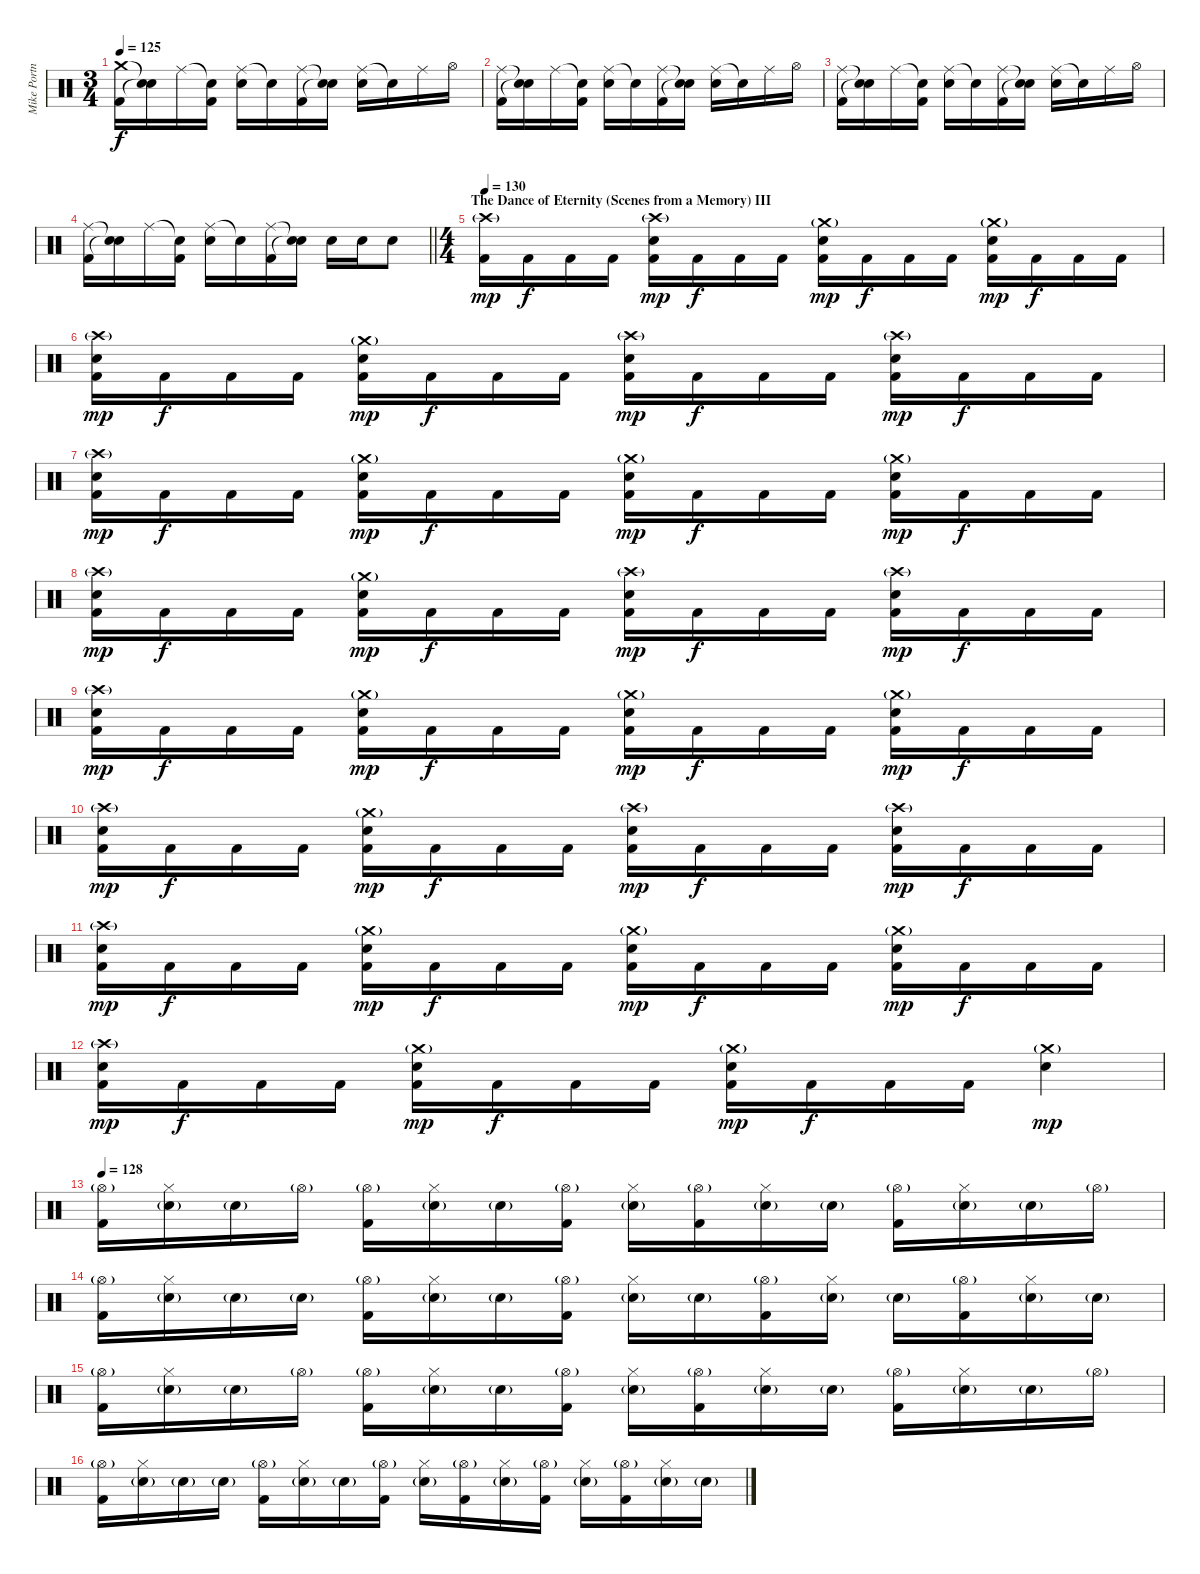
\track ("Mike Portnoy Drums" "Mike Portn") {instrument percussion}
\staff {score}
\articulation defaults
\ts (3 4)
\tempo 125
\clef neutral
\ks c
("Crash medium (hit)" "Kick (hit) 2").16{dy f} ("Snare (hit)"{t} "Snare (hit)"{t}).16 "Ride (middle)".16 ("Snare (hit)"{t} "Kick (hit) 2").16 ("Ride (middle)" "Snare (hit) 2").16 "Snare (hit)"{t}.16 ("Ride (middle)" "Kick (hit) 2").16 ("Snare (hit)"{t} "Snare (hit)"{t}).16 ("Ride (middle)" "Snare (hit) 2").16 "Snare (hit)"{t}.16 "Ride (middle)".16 "Hi-Hat (open)".16 |
("Ride (middle)" "Kick (hit) 2").16 ("Snare (hit)"{t} "Snare (hit)"{t}).16 "Ride (middle)".16 ("Snare (hit)"{t} "Kick (hit) 2").16 ("Ride (middle)" "Snare (hit) 2").16 "Snare (hit)"{t}.16 ("Ride (middle)" "Kick (hit) 2").16 ("Snare (hit)"{t} "Snare (hit)"{t}).16 ("Ride (middle)" "Snare (hit) 2").16 "Snare (hit)"{t}.16 "Ride (middle)".16 "Hi-Hat (open)".16 |
("Ride (middle)" "Kick (hit) 2").16 ("Snare (hit)"{t} "Snare (hit)"{t}).16 "Ride (middle)".16 ("Snare (hit)"{t} "Kick (hit) 2").16 ("Ride (middle)" "Snare (hit) 2").16 "Snare (hit)"{t}.16 ("Ride (middle)" "Kick (hit) 2").16 ("Snare (hit)"{t} "Snare (hit)"{t}).16 ("Ride (middle)" "Snare (hit) 2").16 "Snare (hit)"{t}.16 "Ride (middle)".16 "Hi-Hat (open)".16 |
\barLineRight lightlight
("Ride (middle)" "Kick (hit) 2").16 ("Snare (hit)"{t} "Snare (hit)"{t}).16 "Ride (middle)".16 ("Snare (hit)"{t} "Kick (hit) 2").16 ("Ride (middle)" "Snare (hit) 2").16 "Snare (hit)"{t}.16 ("Ride (middle)" "Kick (hit) 2").16 ("Snare (hit)"{t} "Snare (hit)"{t}).16 "Snare (hit) 2".16 "Snare (hit) 2".16 "Snare (hit) 2".8 |
\ts (4 4)
\section ("" "The Dance of Eternity (Scenes from a Memory) III")
\tempo 130
("Crash high (hit)"{g} "Kick (hit) 2").16{dy mp} "Kick (hit) 2".16{dy f} "Kick (hit) 2".16 "Kick (hit) 2".16 ("Crash high (hit)"{g} "Snare (hit) 2" "Kick (hit) 2").16{dy mp} "Kick (hit) 2".16{dy f} "Kick (hit) 2".16 "Kick (hit) 2".16 ("Crash medium (hit)"{g} "Snare (hit) 2" "Kick (hit) 2").16{dy mp} "Kick (hit) 2".16{dy f} "Kick (hit) 2".16 "Kick (hit) 2".16 ("Crash medium (hit)"{g} "Snare (hit) 2" "Kick (hit) 2").16{dy mp} "Kick (hit) 2".16{dy f} "Kick (hit) 2".16 "Kick (hit) 2".16 |
("Crash high (hit)"{g} "Snare (hit) 2" "Kick (hit) 2").16{dy mp} "Kick (hit) 2".16{dy f} "Kick (hit) 2".16 "Kick (hit) 2".16 ("Crash medium (hit)"{g} "Snare (hit) 2" "Kick (hit) 2").16{dy mp} "Kick (hit) 2".16{dy f} "Kick (hit) 2".16 "Kick (hit) 2".16 ("Crash high (hit)"{g} "Snare (hit) 2" "Kick (hit) 2").16{dy mp} "Kick (hit) 2".16{dy f} "Kick (hit) 2".16 "Kick (hit) 2".16 ("Crash high (hit)"{g} "Snare (hit) 2" "Kick (hit) 2").16{dy mp} "Kick (hit) 2".16{dy f} "Kick (hit) 2".16 "Kick (hit) 2".16 |
("Crash high (hit)"{g} "Snare (hit) 2" "Kick (hit) 2").16{dy mp} "Kick (hit) 2".16{dy f} "Kick (hit) 2".16 "Kick (hit) 2".16 ("Crash medium (hit)"{g} "Snare (hit) 2" "Kick (hit) 2").16{dy mp} "Kick (hit) 2".16{dy f} "Kick (hit) 2".16 "Kick (hit) 2".16 ("Crash medium (hit)"{g} "Snare (hit) 2" "Kick (hit) 2").16{dy mp} "Kick (hit) 2".16{dy f} "Kick (hit) 2".16 "Kick (hit) 2".16 ("Crash medium (hit)"{g} "Snare (hit) 2" "Kick (hit) 2").16{dy mp} "Kick (hit) 2".16{dy f} "Kick (hit) 2".16 "Kick (hit) 2".16 |
("Crash high (hit)"{g} "Snare (hit) 2" "Kick (hit) 2").16{dy mp} "Kick (hit) 2".16{dy f} "Kick (hit) 2".16 "Kick (hit) 2".16 ("Crash medium (hit)"{g} "Snare (hit) 2" "Kick (hit) 2").16{dy mp} "Kick (hit) 2".16{dy f} "Kick (hit) 2".16 "Kick (hit) 2".16 ("Crash high (hit)"{g} "Snare (hit) 2" "Kick (hit) 2").16{dy mp} "Kick (hit) 2".16{dy f} "Kick (hit) 2".16 "Kick (hit) 2".16 ("Crash high (hit)"{g} "Snare (hit) 2" "Kick (hit) 2").16{dy mp} "Kick (hit) 2".16{dy f} "Kick (hit) 2".16 "Kick (hit) 2".16 |
("Crash high (hit)"{g} "Snare (hit) 2" "Kick (hit) 2").16{dy mp} "Kick (hit) 2".16{dy f} "Kick (hit) 2".16 "Kick (hit) 2".16 ("Crash medium (hit)"{g} "Snare (hit) 2" "Kick (hit) 2").16{dy mp} "Kick (hit) 2".16{dy f} "Kick (hit) 2".16 "Kick (hit) 2".16 ("Crash medium (hit)"{g} "Snare (hit) 2" "Kick (hit) 2").16{dy mp} "Kick (hit) 2".16{dy f} "Kick (hit) 2".16 "Kick (hit) 2".16 ("Crash medium (hit)"{g} "Snare (hit) 2" "Kick (hit) 2").16{dy mp} "Kick (hit) 2".16{dy f} "Kick (hit) 2".16 "Kick (hit) 2".16 |
("Crash high (hit)"{g} "Snare (hit) 2" "Kick (hit) 2").16{dy mp} "Kick (hit) 2".16{dy f} "Kick (hit) 2".16 "Kick (hit) 2".16 ("Crash medium (hit)"{g} "Snare (hit) 2" "Kick (hit) 2").16{dy mp} "Kick (hit) 2".16{dy f} "Kick (hit) 2".16 "Kick (hit) 2".16 ("Crash high (hit)"{g} "Snare (hit) 2" "Kick (hit) 2").16{dy mp} "Kick (hit) 2".16{dy f} "Kick (hit) 2".16 "Kick (hit) 2".16 ("Crash high (hit)"{g} "Snare (hit) 2" "Kick (hit) 2").16{dy mp} "Kick (hit) 2".16{dy f} "Kick (hit) 2".16 "Kick (hit) 2".16 |
("Crash high (hit)"{g} "Snare (hit) 2" "Kick (hit) 2").16{dy mp} "Kick (hit) 2".16{dy f} "Kick (hit) 2".16 "Kick (hit) 2".16 ("Crash medium (hit)"{g} "Snare (hit) 2" "Kick (hit) 2").16{dy mp} "Kick (hit) 2".16{dy f} "Kick (hit) 2".16 "Kick (hit) 2".16 ("Crash medium (hit)"{g} "Snare (hit) 2" "Kick (hit) 2").16{dy mp} "Kick (hit) 2".16{dy f} "Kick (hit) 2".16 "Kick (hit) 2".16 ("Crash medium (hit)"{g} "Snare (hit) 2" "Kick (hit) 2").16{dy mp} "Kick (hit) 2".16{dy f} "Kick (hit) 2".16 "Kick (hit) 2".16 |
("Crash high (hit)"{g} "Snare (hit) 2" "Kick (hit) 2").16{dy mp} "Kick (hit) 2".16{dy f} "Kick (hit) 2".16 "Kick (hit) 2".16 ("Crash medium (hit)"{g} "Snare (hit) 2" "Kick (hit) 2").16{dy mp} "Kick (hit) 2".16{dy f} "Kick (hit) 2".16 "Kick (hit) 2".16 ("Crash medium (hit)"{g} "Snare (hit) 2" "Kick (hit) 2").16{dy mp} "Kick (hit) 2".16{dy f} "Kick (hit) 2".16 "Kick (hit) 2".16 ("Crash medium (hit)"{g} "Snare (hit) 2").4{dy mp} |
\tempo 128
("Hi-Hat (open)"{g} "Kick (hit) 2").16 ("Hi-Hat (closed)" "Snare (hit) 2"{g}).16 "Snare (hit) 2"{g}.16 "Hi-Hat (open)"{g}.16 ("Hi-Hat (open)"{g} "Kick (hit) 2").16 ("Hi-Hat (closed)" "Snare (hit) 2"{g}).16 "Snare (hit) 2"{g}.16 ("Hi-Hat (open)"{g} "Kick (hit) 2").16 ("Hi-Hat (closed)" "Snare (hit) 2"{g}).16 ("Hi-Hat (open)"{g} "Kick (hit) 2").16 ("Hi-Hat (closed)" "Snare (hit) 2"{g}).16 "Snare (hit) 2"{g}.16 ("Hi-Hat (open)"{g} "Kick (hit) 2").16 ("Hi-Hat (closed)" "Snare (hit) 2"{g}).16 "Snare (hit) 2"{g}.16 "Hi-Hat (open)"{g}.16 |
("Hi-Hat (open)"{g} "Kick (hit) 2").16 ("Hi-Hat (closed)" "Snare (hit) 2"{g}).16 "Snare (hit) 2"{g}.16 "Snare (hit) 2"{g}.16 ("Hi-Hat (open)"{g} "Kick (hit) 2").16 ("Hi-Hat (closed)" "Snare (hit) 2"{g}).16 "Snare (hit) 2"{g}.16 ("Hi-Hat (open)"{g} "Kick (hit) 2").16 ("Hi-Hat (closed)" "Snare (hit) 2"{g}).16 "Snare (hit) 2"{g}.16 ("Hi-Hat (open)"{g} "Kick (hit) 2").16 ("Hi-Hat (closed)" "Snare (hit) 2"{g}).16 "Snare (hit) 2"{g}.16 ("Hi-Hat (open)"{g} "Kick (hit) 2").16 ("Hi-Hat (closed)" "Snare (hit) 2"{g}).16 "Snare (hit) 2"{g}.16 |
("Hi-Hat (open)"{g} "Kick (hit) 2").16 ("Hi-Hat (closed)" "Snare (hit) 2"{g}).16 "Snare (hit) 2"{g}.16 "Hi-Hat (open)"{g}.16 ("Hi-Hat (open)"{g} "Kick (hit) 2").16 ("Hi-Hat (closed)" "Snare (hit) 2"{g}).16 "Snare (hit) 2"{g}.16 ("Hi-Hat (open)"{g} "Kick (hit) 2").16 ("Hi-Hat (closed)" "Snare (hit) 2"{g}).16 ("Hi-Hat (open)"{g} "Kick (hit) 2").16 ("Hi-Hat (closed)" "Snare (hit) 2"{g}).16 "Snare (hit) 2"{g}.16 ("Hi-Hat (open)"{g} "Kick (hit) 2").16 ("Hi-Hat (closed)" "Snare (hit) 2"{g}).16 "Snare (hit) 2"{g}.16 "Hi-Hat (open)"{g}.16 |
("Hi-Hat (open)"{g} "Kick (hit) 2").16 ("Hi-Hat (closed)" "Snare (hit) 2"{g}).16 "Snare (hit) 2"{g}.16 "Snare (hit) 2"{g}.16 ("Hi-Hat (open)"{g} "Kick (hit) 2").16 ("Hi-Hat (closed)" "Snare (hit) 2"{g}).16 "Snare (hit) 2"{g}.16 ("Hi-Hat (open)"{g} "Kick (hit) 2").16 ("Hi-Hat (closed)" "Snare (hit) 2"{g}).16 ("Hi-Hat (open)"{g} "Kick (hit) 2").16 ("Hi-Hat (closed)" "Snare (hit) 2"{g}).16 ("Hi-Hat (open)"{g} "Kick (hit) 2").16 ("Hi-Hat (closed)" "Snare (hit) 2"{g}).16 ("Hi-Hat (open)"{g} "Kick (hit) 2").16 ("Hi-Hat (closed)" "Snare (hit) 2"{g}).16 "Snare (hit) 2"{g}.16
